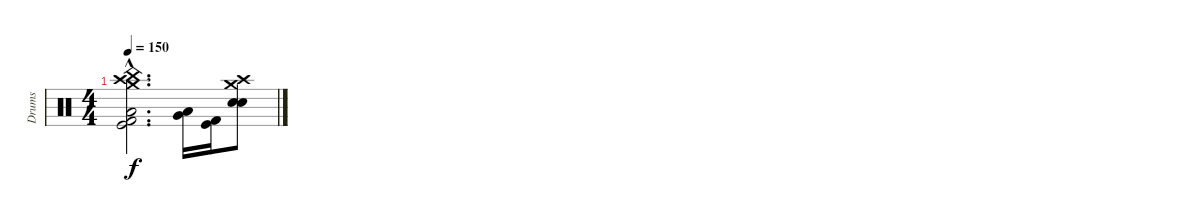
\track ("Drums" "Drums") {instrument percussion}
\staff {score}
\articulation defaults
\ts (4 4)
\tempo 150
\clef neutral
\ks c
("Crash medium (hit)"{hac} "Crash high (hit)"{hac} "Low Tom (hit)"{hac} "Kick (hit) 2"{hac} "Kick (hit)"{hac} "China (hit)"{hac}).2{d dy f} ("Very Low Tom (hit)" "Low Tom (hit)").16 ("Kick (hit) 2" "Kick (hit)").16 ("Crash medium (hit)" "Crash high (hit)" "Snare (hit) 2" "Electric Snare (hit)").8
